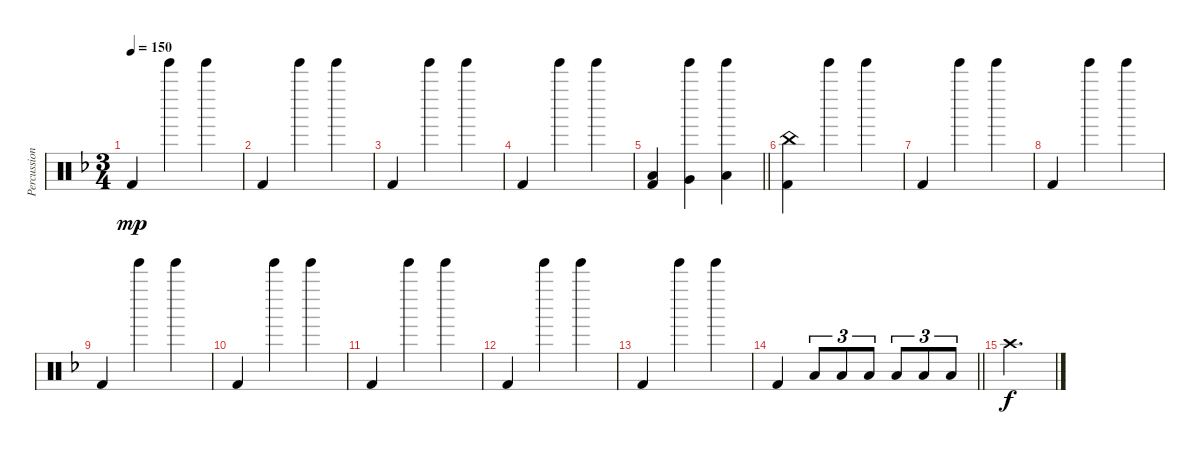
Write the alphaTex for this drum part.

\track ("Percussions" "Percussion") {instrument percussion}
\staff {score}
\articulation defaults
\ts (3 4)
\tempo 150
\clef neutral
\ks f "Kick (hit) 2".4{dy mp} "Tinkle Bell (hit)".4 "Tinkle Bell (hit)".4
|
"Kick (hit) 2".4 "Tinkle Bell (hit)".4 "Tinkle Bell (hit)".4 |
"Kick (hit) 2".4 "Tinkle Bell (hit)".4 "Tinkle Bell (hit)".4 |
"Kick (hit) 2".4 "Tinkle Bell (hit)".4 "Tinkle Bell (hit)".4 |
\barLineRight lightlight
("Low Tom (hit)" "Kick (hit) 2").4 ("Very Low Tom (hit)" "Tinkle Bell (hit)").4 ("Low Floor Tom (hit)" "Tinkle Bell (hit)").4 |
("China (hit)" "Kick (hit) 2").4 "Tinkle Bell (hit)".4 "Tinkle Bell (hit)".4 |
"Kick (hit) 2".4 "Tinkle Bell (hit)".4 "Tinkle Bell (hit)".4 |
"Kick (hit) 2".4 "Tinkle Bell (hit)".4 "Tinkle Bell (hit)".4 |
"Kick (hit) 2".4 "Tinkle Bell (hit)".4 "Tinkle Bell (hit)".4 |
"Kick (hit) 2".4 "Tinkle Bell (hit)".4 "Tinkle Bell (hit)".4 |
"Kick (hit) 2".4 "Tinkle Bell (hit)".4 "Tinkle Bell (hit)".4 |
"Kick (hit) 2".4 "Tinkle Bell (hit)".4 "Tinkle Bell (hit)".4 |
"Kick (hit) 2".4 "Tinkle Bell (hit)".4 "Tinkle Bell (hit)".4 |
\barLineRight lightlight "Kick (hit) 2".4 "Low Tom (hit)".8{tu (3 2)} "Low Tom (hit)".8{tu (3 2)} "Low Tom (hit)".8{tu (3 2)} "Low Tom (hit)".8{tu (3 2)} "Low Tom (hit)".8{tu (3 2)} "Low Tom (hit)".8{tu (3 2)}
|
"Crash high (hit)".2{d dy f}
